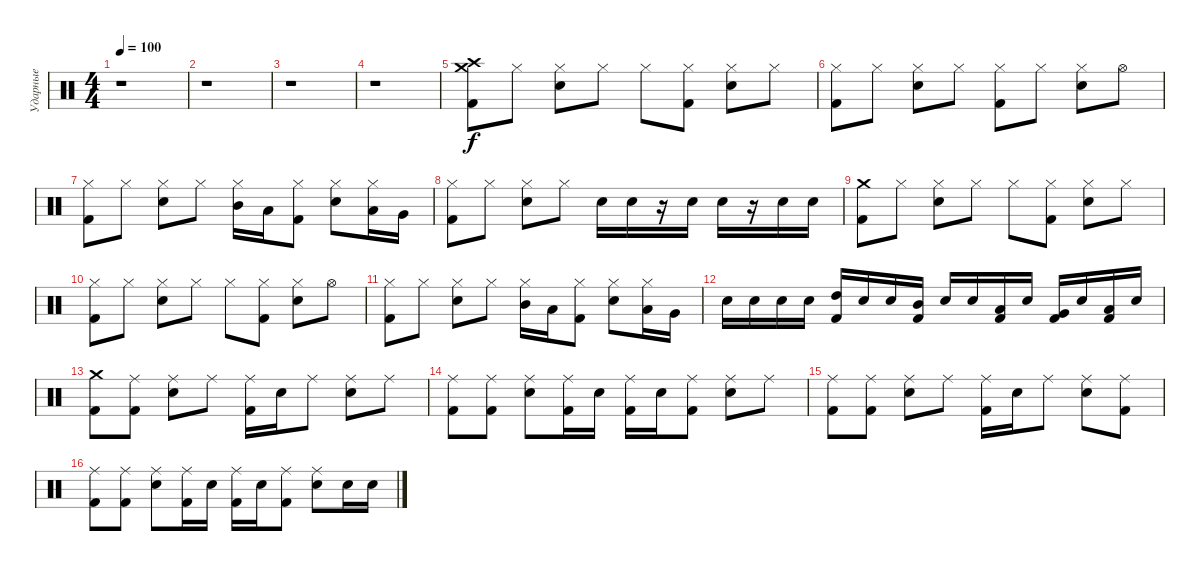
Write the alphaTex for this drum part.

\track ("Ударные" "Ударные") {instrument percussion}
\staff {score}
\articulation defaults
\ts (4 4)
\tempo 100
\clef neutral
\ks c
r.1{dy f} |
r.1 |
r.1 |
r.1 |
("Crash medium (hit)" "Crash high (hit)" "Kick (hit) 2").8 "Hi-Hat (closed)".8 ("Hi-Hat (closed)" "Electric Snare (hit)").8 "Hi-Hat (closed)".8 "Hi-Hat (closed)".8 ("Hi-Hat (closed)" "Kick (hit) 2").8 ("Hi-Hat (closed)" "Electric Snare (hit)").8 "Hi-Hat (closed)".8 |
("Hi-Hat (closed)" "Kick (hit) 2").8 "Hi-Hat (closed)".8 ("Hi-Hat (closed)" "Electric Snare (hit)").8 "Hi-Hat (closed)".8 ("Hi-Hat (closed)" "Kick (hit) 2").8 "Hi-Hat (closed)".8 ("Hi-Hat (closed)" "Electric Snare (hit)").8 "Hi-Hat (open)".8 |
("Hi-Hat (closed)" "Kick (hit) 2").8 "Hi-Hat (closed)".8 ("Hi-Hat (closed)" "Electric Snare (hit)").8 "Hi-Hat (closed)".8 ("Hi-Hat (closed)" "Mid Tom (hit)").16 "Low Tom (hit)".16 ("Hi-Hat (closed)" "Kick (hit) 2").8 ("Hi-Hat (closed)" "Electric Snare (hit)").8 ("Hi-Hat (closed)" "Low Tom (hit)").16 "Very Low Tom (hit)".16 |
("Hi-Hat (closed)" "Kick (hit) 2").8 "Hi-Hat (closed)".8 ("Hi-Hat (closed)" "Electric Snare (hit)").8 "Hi-Hat (closed)".8 "Electric Snare (hit)".16 "Electric Snare (hit)".16 r.16 "Electric Snare (hit)".16 "Electric Snare (hit)".16 r.16 "Electric Snare (hit)".16 "Electric Snare (hit)".16 |
("Crash medium (hit)" "Kick (hit) 2").8 "Hi-Hat (closed)".8 ("Hi-Hat (closed)" "Electric Snare (hit)").8 "Hi-Hat (closed)".8 "Hi-Hat (closed)".8 ("Hi-Hat (closed)" "Kick (hit) 2").8 ("Hi-Hat (closed)" "Electric Snare (hit)").8 "Hi-Hat (closed)".8 |
("Hi-Hat (closed)" "Kick (hit) 2").8 "Hi-Hat (closed)".8 ("Hi-Hat (closed)" "Electric Snare (hit)").8 "Hi-Hat (closed)".8 "Hi-Hat (closed)".8 ("Hi-Hat (closed)" "Kick (hit) 2").8 ("Hi-Hat (closed)" "Electric Snare (hit)").8 "Hi-Hat (open)".8 |
("Hi-Hat (closed)" "Kick (hit) 2").8 "Hi-Hat (closed)".8 ("Hi-Hat (closed)" "Electric Snare (hit)").8 "Hi-Hat (closed)".8 ("Hi-Hat (closed)" "Mid Tom (hit)").16 "Low Tom (hit)".16 ("Hi-Hat (closed)" "Kick (hit) 2").8 ("Hi-Hat (closed)" "Electric Snare (hit)").8 ("Hi-Hat (closed)" "Low Tom (hit)").16 "Very Low Tom (hit)".16 |
"Electric Snare (hit)".16 "Electric Snare (hit)".16 "Electric Snare (hit)".16 "Electric Snare (hit)".16 ("High Tom (hit)" "Kick (hit) 2").16 "Electric Snare (hit)".16 "Electric Snare (hit)".16 ("Mid Tom (hit)" "Kick (hit) 2").16 "Electric Snare (hit)".16 "Electric Snare (hit)".16 ("Low Tom (hit)" "Kick (hit) 2").16 "Electric Snare (hit)".16 ("Very Low Tom (hit)" "Kick (hit) 2").16 "Electric Snare (hit)".16 ("Low Floor Tom (hit)" "Kick (hit) 2").16 "Electric Snare (hit)".16 |
("Crash medium (hit)" "Kick (hit) 2").8 ("Ride (middle)" "Kick (hit) 2").8 ("Ride (middle)" "Electric Snare (hit)").8 "Ride (middle)".8 ("Ride (middle)" "Kick (hit) 2").16 "Electric Snare (hit)".16 "Ride (middle)".8 ("Ride (middle)" "Electric Snare (hit)").8 "Ride (middle)".8 |
("Ride (middle)" "Kick (hit) 2").8 ("Ride (middle)" "Kick (hit) 2").8 ("Ride (middle)" "Electric Snare (hit)").8 ("Ride (middle)" "Kick (hit) 2").16 "Electric Snare (hit)".16 ("Ride (middle)" "Kick (hit) 2").16 "Electric Snare (hit)".16 ("Ride (middle)" "Kick (hit) 2").8 ("Ride (middle)" "Electric Snare (hit)").8 "Ride (middle)".8 |
("Ride (middle)" "Kick (hit) 2").8 ("Ride (middle)" "Kick (hit) 2").8 ("Ride (middle)" "Electric Snare (hit)").8 "Ride (middle)".8 ("Ride (middle)" "Kick (hit) 2").16 "Electric Snare (hit)".16 "Ride (middle)".8 ("Ride (middle)" "Electric Snare (hit)").8 ("Ride (middle)" "Kick (hit) 2").8 |
("Ride (middle)" "Kick (hit) 2").8 ("Ride (middle)" "Kick (hit) 2").8 ("Ride (middle)" "Electric Snare (hit)").8 ("Ride (middle)" "Kick (hit) 2").16 "Electric Snare (hit)".16 ("Ride (middle)" "Kick (hit) 2").16 "Electric Snare (hit)".16 ("Ride (middle)" "Kick (hit) 2").8 ("Ride (middle)" "Electric Snare (hit)").8 "Electric Snare (hit)".16 "Electric Snare (hit)".16
